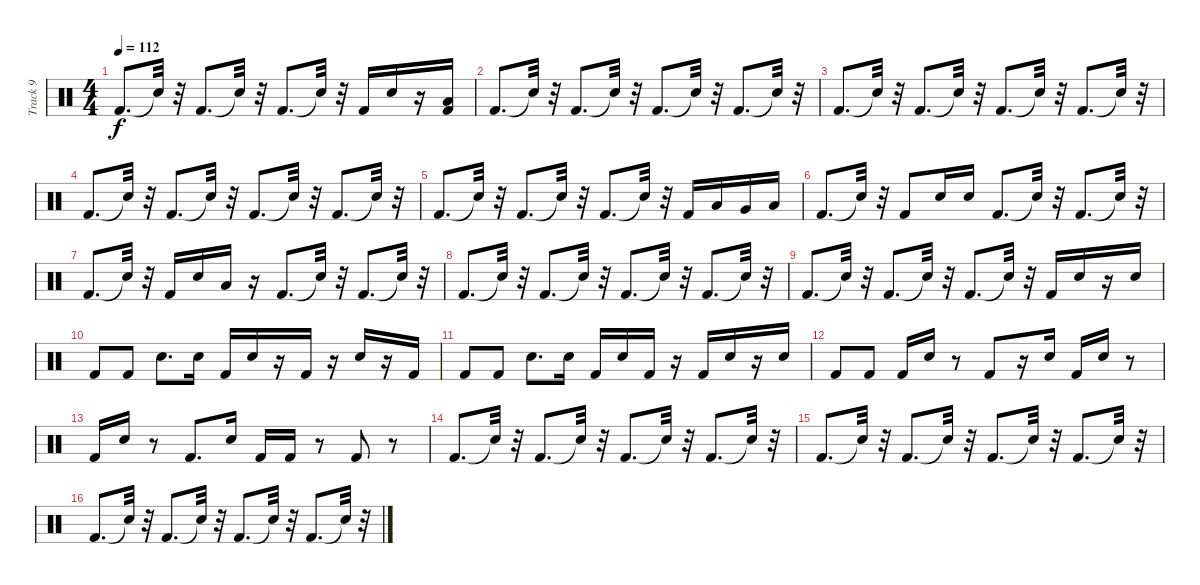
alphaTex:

\track ("Track 9" "Track 9") {instrument percussion}
\staff {score}
\articulation defaults
\ts (4 4)
\tempo 112
\clef neutral
\ks c "Kick (hit) 2".8{d dy f} "Snare (hit)"{t}.32
r.32 "Kick (hit) 2".8{d} "Snare (hit)"{t}.32 r.32 "Kick (hit) 2".8{d} "Snare (hit)"{t}.32 r.32 "Kick (hit) 2".16 "Snare (hit) 2".16 r.16 ("Kick (hit) 2" "Low Floor Tom (hit)").16 |
"Kick (hit) 2".8{d} "Snare (hit)"{t}.32 r.32 "Kick (hit) 2".8{d} "Snare (hit)"{t}.32 r.32 "Kick (hit) 2".8{d} "Snare (hit)"{t}.32 r.32 "Kick (hit) 2".8{d} "Snare (hit)"{t}.32 r.32 |
"Kick (hit) 2".8{d} "Snare (hit)"{t}.32 r.32 "Kick (hit) 2".8{d} "Snare (hit)"{t}.32 r.32 "Kick (hit) 2".8{d} "Snare (hit)"{t}.32 r.32 "Kick (hit) 2".8{d} "Snare (hit)"{t}.32 r.32 |
"Kick (hit) 2".8{d} "Snare (hit)"{t}.32 r.32 "Kick (hit) 2".8{d} "Snare (hit)"{t}.32 r.32 "Kick (hit) 2".8{d} "Snare (hit)"{t}.32 r.32 "Kick (hit) 2".8{d} "Snare (hit)"{t}.32 r.32 |
"Kick (hit) 2".8{d} "Snare (hit)"{t}.32 r.32 "Kick (hit) 2".8{d} "Snare (hit)"{t}.32 r.32 "Kick (hit) 2".8{d} "Snare (hit)"{t}.32 r.32 "Kick (hit) 2".16 "Low Tom (hit)".16 "Very Low Tom (hit)".16 "Low Floor Tom (hit)".16 |
"Kick (hit) 2".8{d} "Snare (hit)"{t}.32 r.32 "Kick (hit) 2".8 "Snare (hit) 2".16 "Snare (hit) 2".16 "Kick (hit) 2".8{d} "Snare (hit)"{t}.32 r.32 "Kick (hit) 2".8{d} "Snare (hit)"{t}.32 r.32 |
"Kick (hit) 2".8{d} "Snare (hit)"{t}.32 r.32 "Kick (hit) 2".16 "Snare (hit) 2".16 "Low Floor Tom (hit)".16 r.16 "Kick (hit) 2".8{d} "Snare (hit)"{t}.32 r.32 "Kick (hit) 2".8{d} "Snare (hit)"{t}.32 r.32 |
"Kick (hit) 2".8{d} "Snare (hit)"{t}.32 r.32 "Kick (hit) 2".8{d} "Snare (hit)"{t}.32 r.32 "Kick (hit) 2".8{d} "Snare (hit)"{t}.32 r.32 "Kick (hit) 2".8{d} "Snare (hit)"{t}.32 r.32 |
"Kick (hit) 2".8{d} "Snare (hit)"{t}.32 r.32 "Kick (hit) 2".8{d} "Snare (hit)"{t}.32 r.32 "Kick (hit) 2".8{d} "Snare (hit)"{t}.32 r.32 "Kick (hit) 2".16 "Snare (hit) 2".16 r.16 "Snare (hit) 2".16 |
"Kick (hit) 2".8 "Kick (hit) 2".8 "Snare (hit) 2".8{d} "Snare (hit) 2".16 "Kick (hit) 2".16 "Snare (hit) 2".16 r.16 "Kick (hit) 2".16 r.16 "Snare (hit) 2".16 r.16 "Kick (hit) 2".16 |
"Kick (hit) 2".8 "Kick (hit) 2".8 "Snare (hit) 2".8{d} "Snare (hit) 2".16 "Kick (hit) 2".16 "Snare (hit) 2".16 "Kick (hit) 2".16 r.16 "Kick (hit) 2".16 "Snare (hit) 2".16 r.16 "Snare (hit) 2".16 |
"Kick (hit) 2".8 "Kick (hit) 2".8 "Kick (hit) 2".16 "Snare (hit) 2".16 r.8 "Kick (hit) 2".8 r.16 "Snare (hit) 2".16 "Kick (hit) 2".16 "Snare (hit) 2".16 r.8 |
"Kick (hit) 2".16 "Snare (hit) 2".16 r.8 "Kick (hit) 2".8{d} "Snare (hit) 2".16 "Kick (hit) 2".16 "Kick (hit) 2".16 r.8 "Kick (hit) 2".8 r.8 |
"Kick (hit) 2".8{d} "Snare (hit)"{t}.32 r.32 "Kick (hit) 2".8{d} "Snare (hit)"{t}.32 r.32 "Kick (hit) 2".8{d} "Snare (hit)"{t}.32 r.32 "Kick (hit) 2".8{d} "Snare (hit)"{t}.32 r.32 |
"Kick (hit) 2".8{d} "Snare (hit)"{t}.32 r.32 "Kick (hit) 2".8{d} "Snare (hit)"{t}.32 r.32 "Kick (hit) 2".8{d} "Snare (hit)"{t}.32 r.32 "Kick (hit) 2".8{d} "Snare (hit)"{t}.32 r.32 |
"Kick (hit) 2".8{d} "Snare (hit)"{t}.32 r.32 "Kick (hit) 2".8{d} "Snare (hit)"{t}.32 r.32 "Kick (hit) 2".8{d} "Snare (hit)"{t}.32 r.32 "Kick (hit) 2".8{d} "Snare (hit)"{t}.32 r.32
